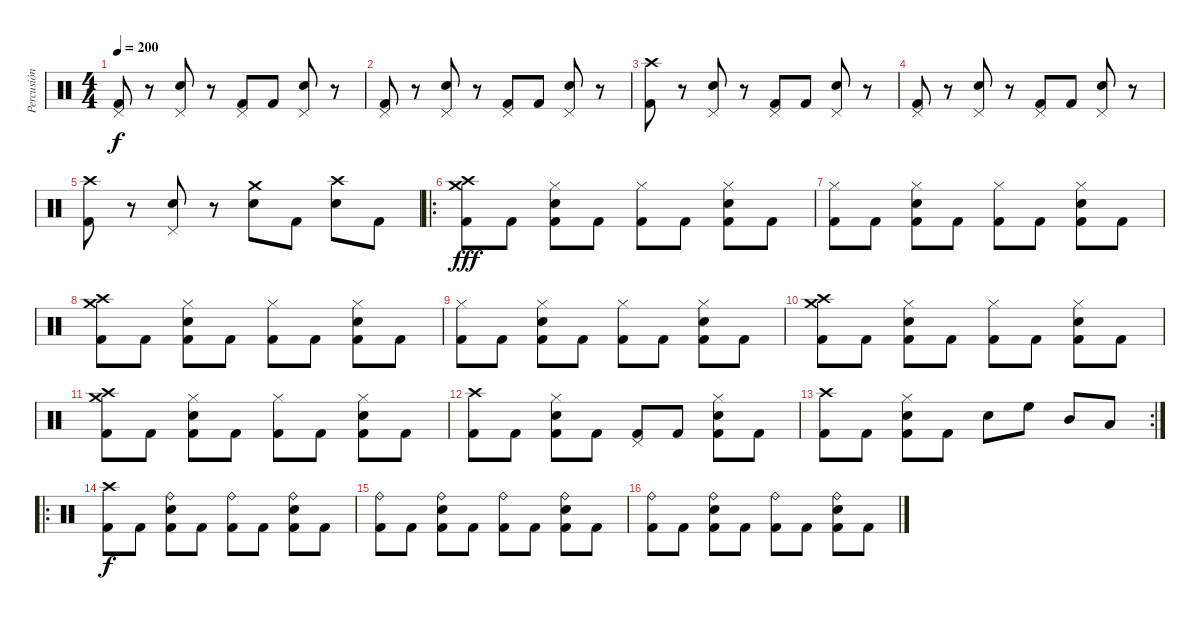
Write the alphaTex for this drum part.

\track ("Percusión" "Percusión") {instrument percussion}
\staff {score}
\articulation defaults
\ts (4 4)
\tempo 200
\clef neutral
\ks c
("Pedal Hi-Hat (hit)" "Kick (hit) 2").8{dy f} r.8 ("Pedal Hi-Hat (hit)" "Electric Snare (hit)").8 r.8 ("Pedal Hi-Hat (hit)" "Kick (hit) 2").8 "Kick (hit) 2".8 ("Pedal Hi-Hat (hit)" "Electric Snare (hit)").8 r.8 |
("Pedal Hi-Hat (hit)" "Kick (hit) 2").8 r.8 ("Pedal Hi-Hat (hit)" "Electric Snare (hit)").8 r.8 ("Pedal Hi-Hat (hit)" "Kick (hit) 2").8 "Kick (hit) 2".8 ("Pedal Hi-Hat (hit)" "Electric Snare (hit)").8 r.8 |
("Crash high (hit)" "Kick (hit) 2").8 r.8 ("Pedal Hi-Hat (hit)" "Electric Snare (hit)").8 r.8 ("Pedal Hi-Hat (hit)" "Kick (hit) 2").8 "Kick (hit) 2".8 ("Pedal Hi-Hat (hit)" "Electric Snare (hit)").8 r.8 |
("Pedal Hi-Hat (hit)" "Kick (hit) 2").8 r.8 ("Pedal Hi-Hat (hit)" "Electric Snare (hit)").8 r.8 ("Pedal Hi-Hat (hit)" "Kick (hit) 2").8 "Kick (hit) 2".8 ("Pedal Hi-Hat (hit)" "Electric Snare (hit)").8 r.8 |
("Crash high (hit)" "Kick (hit) 2").8 r.8 ("Pedal Hi-Hat (hit)" "Electric Snare (hit)").8 r.8 ("Crash medium (hit)" "Electric Snare (hit)").8 "Kick (hit) 2".8 ("Crash high (hit)" "Electric Snare (hit)").8 "Kick (hit) 2".8 |
\ro
("Crash high (hit)" "Crash medium (hit)" "Kick (hit) 2").8{dy fff} "Kick (hit) 2".8 ("Hi-Hat (closed)" "Electric Snare (hit)" "Kick (hit) 2").8 "Kick (hit) 2".8 ("Hi-Hat (closed)" "Kick (hit) 2").8 "Kick (hit) 2".8 ("Hi-Hat (closed)" "Electric Snare (hit)" "Kick (hit) 2").8 "Kick (hit) 2".8 |
("Hi-Hat (closed)" "Kick (hit) 2").8 "Kick (hit) 2".8 ("Hi-Hat (closed)" "Electric Snare (hit)" "Kick (hit) 2").8 "Kick (hit) 2".8 ("Hi-Hat (closed)" "Kick (hit) 2").8 "Kick (hit) 2".8 ("Hi-Hat (closed)" "Electric Snare (hit)" "Kick (hit) 2").8 "Kick (hit) 2".8 |
("Crash high (hit)" "Crash medium (hit)" "Kick (hit) 2").8 "Kick (hit) 2".8 ("Hi-Hat (closed)" "Electric Snare (hit)" "Kick (hit) 2").8 "Kick (hit) 2".8 ("Hi-Hat (closed)" "Kick (hit) 2").8 "Kick (hit) 2".8 ("Hi-Hat (closed)" "Electric Snare (hit)" "Kick (hit) 2").8 "Kick (hit) 2".8 |
("Hi-Hat (closed)" "Kick (hit) 2").8 "Kick (hit) 2".8 ("Hi-Hat (closed)" "Electric Snare (hit)" "Kick (hit) 2").8 "Kick (hit) 2".8 ("Hi-Hat (closed)" "Kick (hit) 2").8 "Kick (hit) 2".8 ("Hi-Hat (closed)" "Electric Snare (hit)" "Kick (hit) 2").8 "Kick (hit) 2".8 |
("Crash high (hit)" "Crash medium (hit)" "Kick (hit) 2").8 "Kick (hit) 2".8 ("Hi-Hat (closed)" "Electric Snare (hit)" "Kick (hit) 2").8 "Kick (hit) 2".8 ("Hi-Hat (closed)" "Kick (hit) 2").8 "Kick (hit) 2".8 ("Hi-Hat (closed)" "Electric Snare (hit)" "Kick (hit) 2").8 "Kick (hit) 2".8 |
("Crash high (hit)" "Crash medium (hit)" "Kick (hit) 2").8 "Kick (hit) 2".8 ("Hi-Hat (closed)" "Electric Snare (hit)" "Kick (hit) 2").8 "Kick (hit) 2".8 ("Hi-Hat (closed)" "Kick (hit) 2").8 "Kick (hit) 2".8 ("Hi-Hat (closed)" "Electric Snare (hit)" "Kick (hit) 2").8 "Kick (hit) 2".8 |
("Crash high (hit)" "Kick (hit) 2").8 "Kick (hit) 2".8 ("Hi-Hat (closed)" "Electric Snare (hit)" "Kick (hit) 2").8 "Kick (hit) 2".8 ("Pedal Hi-Hat (hit)" "Kick (hit) 2").8 "Kick (hit) 2".8 ("Hi-Hat (closed)" "Electric Snare (hit)" "Kick (hit) 2").8 "Kick (hit) 2".8 |
\rc 2
("Crash high (hit)" "Kick (hit) 2").8 "Kick (hit) 2".8 ("Hi-Hat (closed)" "Electric Snare (hit)" "Kick (hit) 2").8 "Kick (hit) 2".8 "Electric Snare (hit)".8 "High Floor Tom (hit)".8 "Mid Tom (hit)".8 "Low Tom (hit)".8 |
\ro
("Crash high (hit)" "Kick (hit) 2").8{dy f} "Kick (hit) 2".8 ("Ride (bell)" "Kick (hit) 2" "Electric Snare (hit)").8 "Kick (hit) 2".8 ("Ride (bell)" "Kick (hit) 2").8 "Kick (hit) 2".8 ("Ride (bell)" "Kick (hit) 2" "Electric Snare (hit)").8 "Kick (hit) 2".8 |
("Ride (bell)" "Kick (hit) 2").8 "Kick (hit) 2".8 ("Ride (bell)" "Kick (hit) 2" "Electric Snare (hit)").8 "Kick (hit) 2".8 ("Ride (bell)" "Kick (hit) 2").8 "Kick (hit) 2".8 ("Ride (bell)" "Kick (hit) 2" "Electric Snare (hit)").8 "Kick (hit) 2".8 |
("Ride (bell)" "Kick (hit) 2").8 "Kick (hit) 2".8 ("Ride (bell)" "Kick (hit) 2" "Electric Snare (hit)").8 "Kick (hit) 2".8 ("Ride (bell)" "Kick (hit) 2").8 "Kick (hit) 2".8 ("Ride (bell)" "Kick (hit) 2" "Electric Snare (hit)").8 "Kick (hit) 2".8
